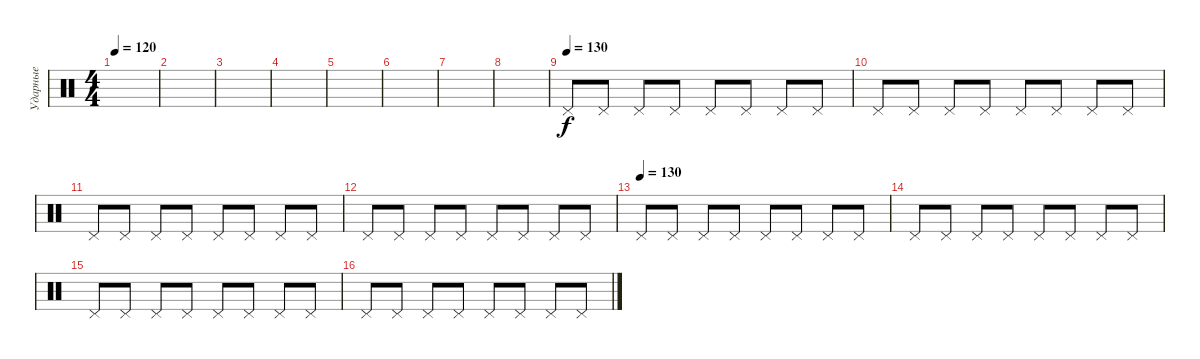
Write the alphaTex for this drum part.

\track ("Ударные" "Ударные") {instrument percussion}
\staff {score}
\articulation defaults
\ts (4 4)
\tempo 120
\clef neutral
\ks c
|
|
|
|
|
|
|
|
\tempo (130)
"Pedal Hi-Hat (hit)".8 "Pedal Hi-Hat (hit)".8 "Pedal Hi-Hat (hit)".8 "Pedal Hi-Hat (hit)".8 "Pedal Hi-Hat (hit)".8 "Pedal Hi-Hat (hit)".8 "Pedal Hi-Hat (hit)".8 "Pedal Hi-Hat (hit)".8 |
"Pedal Hi-Hat (hit)".8 "Pedal Hi-Hat (hit)".8 "Pedal Hi-Hat (hit)".8 "Pedal Hi-Hat (hit)".8 "Pedal Hi-Hat (hit)".8 "Pedal Hi-Hat (hit)".8 "Pedal Hi-Hat (hit)".8 "Pedal Hi-Hat (hit)".8 |
"Pedal Hi-Hat (hit)".8 "Pedal Hi-Hat (hit)".8 "Pedal Hi-Hat (hit)".8 "Pedal Hi-Hat (hit)".8 "Pedal Hi-Hat (hit)".8 "Pedal Hi-Hat (hit)".8 "Pedal Hi-Hat (hit)".8 "Pedal Hi-Hat (hit)".8 |
"Pedal Hi-Hat (hit)".8 "Pedal Hi-Hat (hit)".8 "Pedal Hi-Hat (hit)".8 "Pedal Hi-Hat (hit)".8 "Pedal Hi-Hat (hit)".8 "Pedal Hi-Hat (hit)".8 "Pedal Hi-Hat (hit)".8 "Pedal Hi-Hat (hit)".8 |
\tempo (130)
"Pedal Hi-Hat (hit)".8 "Pedal Hi-Hat (hit)".8 "Pedal Hi-Hat (hit)".8 "Pedal Hi-Hat (hit)".8 "Pedal Hi-Hat (hit)".8 "Pedal Hi-Hat (hit)".8 "Pedal Hi-Hat (hit)".8 "Pedal Hi-Hat (hit)".8 |
"Pedal Hi-Hat (hit)".8 "Pedal Hi-Hat (hit)".8 "Pedal Hi-Hat (hit)".8 "Pedal Hi-Hat (hit)".8 "Pedal Hi-Hat (hit)".8 "Pedal Hi-Hat (hit)".8 "Pedal Hi-Hat (hit)".8 "Pedal Hi-Hat (hit)".8 |
"Pedal Hi-Hat (hit)".8 "Pedal Hi-Hat (hit)".8 "Pedal Hi-Hat (hit)".8 "Pedal Hi-Hat (hit)".8 "Pedal Hi-Hat (hit)".8 "Pedal Hi-Hat (hit)".8 "Pedal Hi-Hat (hit)".8 "Pedal Hi-Hat (hit)".8 |
"Pedal Hi-Hat (hit)".8 "Pedal Hi-Hat (hit)".8 "Pedal Hi-Hat (hit)".8 "Pedal Hi-Hat (hit)".8 "Pedal Hi-Hat (hit)".8 "Pedal Hi-Hat (hit)".8 "Pedal Hi-Hat (hit)".8 "Pedal Hi-Hat (hit)".8
